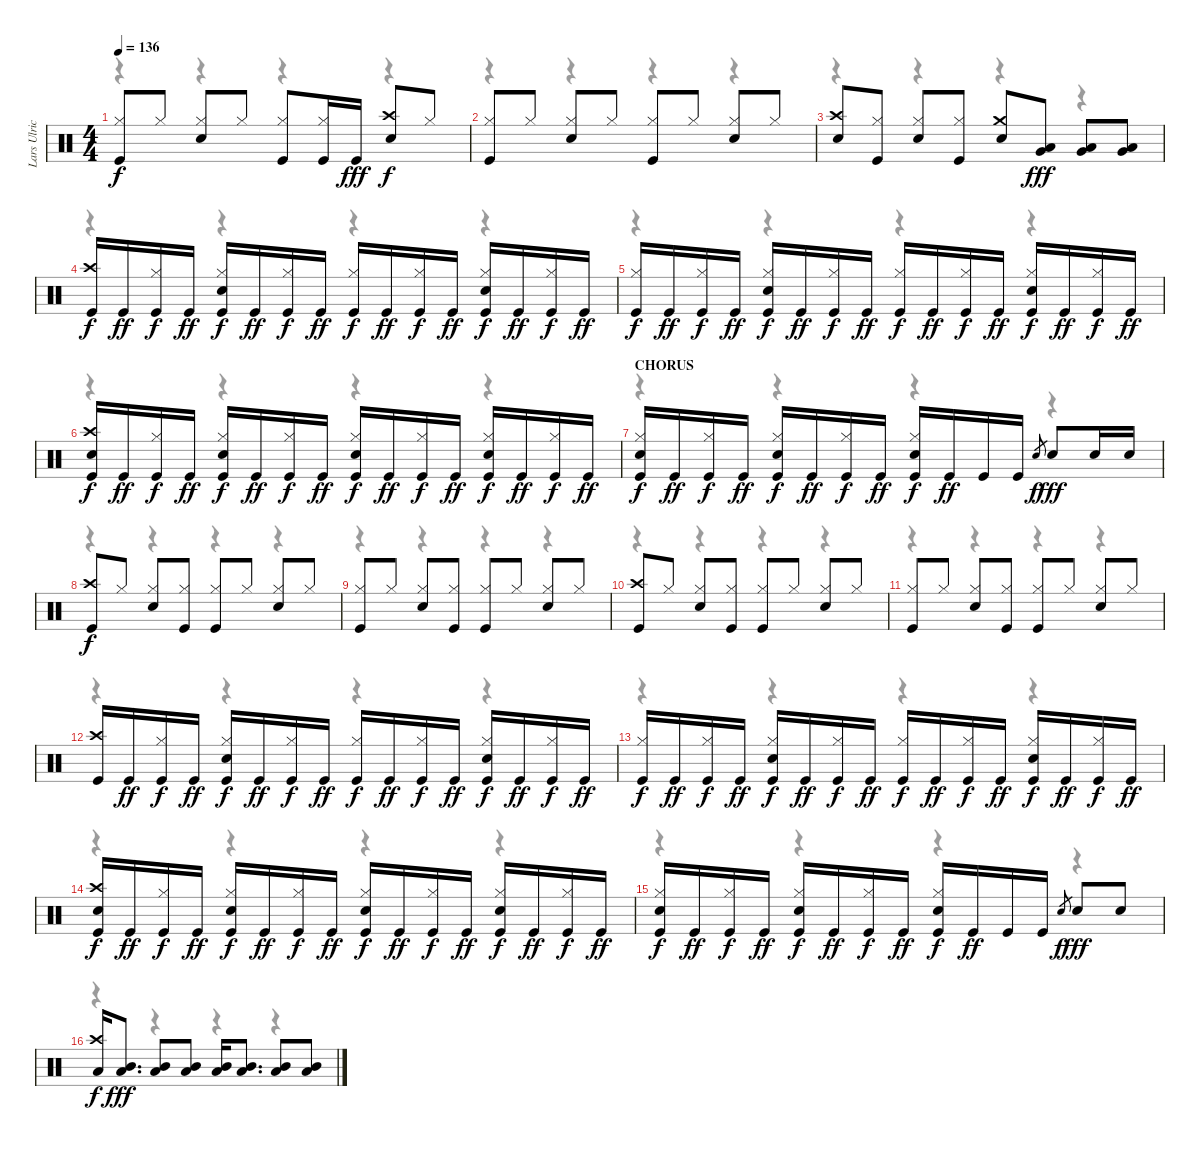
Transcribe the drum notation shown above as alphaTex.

\track ("Lars Ulrich" "Lars Ulric") {instrument percussion}
\staff {score}
\articulation defaults
\voice
\ts (4 4)
\tempo 136
\clef neutral
\ks c
("Hi-Hat (closed)" "Kick (hit)").8{dy f} "Hi-Hat (closed)".8 ("Hi-Hat (closed)" "Snare (hit) 2").8 "Hi-Hat (closed)".8 ("Hi-Hat (closed)" "Kick (hit)").8 ("Hi-Hat (closed)" "Kick (hit)").16 "Kick (hit)".16{dy fff} ("Crash high (hit)" "Snare (hit) 2").8{dy f} "Hi-Hat (closed)".8 |
("Hi-Hat (closed)" "Kick (hit)").8 "Hi-Hat (closed)".8 ("Hi-Hat (closed)" "Snare (hit) 2").8 "Hi-Hat (closed)".8 ("Hi-Hat (closed)" "Kick (hit)").8 "Hi-Hat (closed)".8 ("Hi-Hat (closed)" "Snare (hit) 2").8 "Hi-Hat (closed)".8 |
("Crash high (hit)" "Snare (hit) 2").8 ("Hi-Hat (closed)" "Kick (hit)").8 ("Hi-Hat (closed)" "Snare (hit) 2").8 ("Hi-Hat (closed)" "Kick (hit)").8 ("Crash medium (hit)" "Snare (hit) 2").8 ("Low Tom (hit)" "Very Low Tom (hit)").8{dy fff} ("Low Tom (hit)" "Very Low Tom (hit)").8 ("Low Tom (hit)" "Very Low Tom (hit)").8 |
("Crash high (hit)" "Kick (hit)").16{dy f} "Kick (hit)".16{dy ff} ("Hi-Hat (closed)" "Kick (hit)").16{dy f} "Kick (hit)".16{dy ff} ("Hi-Hat (closed)" "Snare (hit) 2" "Kick (hit)").16{dy f} "Kick (hit)".16{dy ff} ("Hi-Hat (closed)" "Kick (hit)").16{dy f} "Kick (hit)".16{dy ff} ("Hi-Hat (closed)" "Kick (hit)").16{dy f} "Kick (hit)".16{dy ff} ("Hi-Hat (closed)" "Kick (hit)").16{dy f} "Kick (hit)".16{dy ff} ("Hi-Hat (closed)" "Snare (hit) 2" "Kick (hit)").16{dy f} "Kick (hit)".16{dy ff} ("Hi-Hat (closed)" "Kick (hit)").16{dy f} "Kick (hit)".16{dy ff} |
("Hi-Hat (closed)" "Kick (hit)").16{dy f} "Kick (hit)".16{dy ff} ("Hi-Hat (closed)" "Kick (hit)").16{dy f} "Kick (hit)".16{dy ff} ("Hi-Hat (closed)" "Snare (hit) 2" "Kick (hit)").16{dy f} "Kick (hit)".16{dy ff} ("Hi-Hat (closed)" "Kick (hit)").16{dy f} "Kick (hit)".16{dy ff} ("Hi-Hat (closed)" "Kick (hit)").16{dy f} "Kick (hit)".16{dy ff} ("Hi-Hat (closed)" "Kick (hit)").16{dy f} "Kick (hit)".16{dy ff} ("Hi-Hat (closed)" "Snare (hit) 2" "Kick (hit)").16{dy f} "Kick (hit)".16{dy ff} ("Hi-Hat (closed)" "Kick (hit)").16{dy f} "Kick (hit)".16{dy ff} |
("Crash high (hit)" "Snare (hit) 2" "Kick (hit)").16{dy f} "Kick (hit)".16{dy ff} ("Hi-Hat (closed)" "Kick (hit)").16{dy f} "Kick (hit)".16{dy ff} ("Hi-Hat (closed)" "Snare (hit) 2" "Kick (hit)").16{dy f} "Kick (hit)".16{dy ff} ("Hi-Hat (closed)" "Kick (hit)").16{dy f} "Kick (hit)".16{dy ff} ("Hi-Hat (closed)" "Snare (hit) 2" "Kick (hit)").16{dy f} "Kick (hit)".16{dy ff} ("Hi-Hat (closed)" "Kick (hit)").16{dy f} "Kick (hit)".16{dy ff} ("Hi-Hat (closed)" "Snare (hit) 2" "Kick (hit)").16{dy f} "Kick (hit)".16{dy ff} ("Hi-Hat (closed)" "Kick (hit)").16{dy f} "Kick (hit)".16{dy ff} |
\section ("" "CHORUS")
("Hi-Hat (closed)" "Snare (hit) 2" "Kick (hit)").16{dy f} "Kick (hit)".16{dy ff} ("Hi-Hat (closed)" "Kick (hit)").16{dy f} "Kick (hit)".16{dy ff} ("Hi-Hat (closed)" "Snare (hit) 2" "Kick (hit)").16{dy f} "Kick (hit)".16{dy ff} ("Hi-Hat (closed)" "Kick (hit)").16{dy f} "Kick (hit)".16{dy ff} ("Hi-Hat (closed)" "Snare (hit) 2" "Kick (hit)").16{dy f} "Kick (hit)".16{dy ff} "Kick (hit)".16 "Kick (hit)".16 "Snare (hit)".8{gr dy f} "Snare (hit) 2".8{dy fff} "Snare (hit) 2".16 "Snare (hit) 2".16 |
("Crash high (hit)" "Kick (hit)").8{dy f} "Hi-Hat (closed)".8 ("Hi-Hat (closed)" "Snare (hit) 2").8 ("Hi-Hat (closed)" "Kick (hit)").8 ("Hi-Hat (closed)" "Kick (hit)").8 "Hi-Hat (closed)".8 ("Hi-Hat (closed)" "Snare (hit) 2").8 "Hi-Hat (closed)".8 |
("Hi-Hat (closed)" "Kick (hit)").8 "Hi-Hat (closed)".8 ("Hi-Hat (closed)" "Snare (hit) 2").8 ("Hi-Hat (closed)" "Kick (hit)").8 ("Hi-Hat (closed)" "Kick (hit)").8 "Hi-Hat (closed)".8 ("Hi-Hat (closed)" "Snare (hit) 2").8 "Hi-Hat (closed)".8 |
("Crash high (hit)" "Kick (hit)").8 "Hi-Hat (closed)".8 ("Hi-Hat (closed)" "Snare (hit) 2").8 ("Hi-Hat (closed)" "Kick (hit)").8 ("Hi-Hat (closed)" "Kick (hit)").8 "Hi-Hat (closed)".8 ("Hi-Hat (closed)" "Snare (hit) 2").8 "Hi-Hat (closed)".8 |
("Hi-Hat (closed)" "Kick (hit)").8 "Hi-Hat (closed)".8 ("Hi-Hat (closed)" "Snare (hit) 2").8 ("Hi-Hat (closed)" "Kick (hit)").8 ("Hi-Hat (closed)" "Kick (hit)").8 "Hi-Hat (closed)".8 ("Hi-Hat (closed)" "Snare (hit) 2").8 "Hi-Hat (closed)".8 |
("Crash high (hit)" "Kick (hit)").16 "Kick (hit)".16{dy ff} ("Hi-Hat (closed)" "Kick (hit)").16{dy f} "Kick (hit)".16{dy ff} ("Hi-Hat (closed)" "Snare (hit) 2" "Kick (hit)").16{dy f} "Kick (hit)".16{dy ff} ("Hi-Hat (closed)" "Kick (hit)").16{dy f} "Kick (hit)".16{dy ff} ("Hi-Hat (closed)" "Kick (hit)").16{dy f} "Kick (hit)".16{dy ff} ("Hi-Hat (closed)" "Kick (hit)").16{dy f} "Kick (hit)".16{dy ff} ("Hi-Hat (closed)" "Snare (hit) 2" "Kick (hit)").16{dy f} "Kick (hit)".16{dy ff} ("Hi-Hat (closed)" "Kick (hit)").16{dy f} "Kick (hit)".16{dy ff} |
("Hi-Hat (closed)" "Kick (hit)").16{dy f} "Kick (hit)".16{dy ff} ("Hi-Hat (closed)" "Kick (hit)").16{dy f} "Kick (hit)".16{dy ff} ("Hi-Hat (closed)" "Snare (hit) 2" "Kick (hit)").16{dy f} "Kick (hit)".16{dy ff} ("Hi-Hat (closed)" "Kick (hit)").16{dy f} "Kick (hit)".16{dy ff} ("Hi-Hat (closed)" "Kick (hit)").16{dy f} "Kick (hit)".16{dy ff} ("Hi-Hat (closed)" "Kick (hit)").16{dy f} "Kick (hit)".16{dy ff} ("Hi-Hat (closed)" "Snare (hit) 2" "Kick (hit)").16{dy f} "Kick (hit)".16{dy ff} ("Hi-Hat (closed)" "Kick (hit)").16{dy f} "Kick (hit)".16{dy ff} |
("Crash high (hit)" "Snare (hit) 2" "Kick (hit)").16{dy f} "Kick (hit)".16{dy ff} ("Hi-Hat (closed)" "Kick (hit)").16{dy f} "Kick (hit)".16{dy ff} ("Hi-Hat (closed)" "Snare (hit) 2" "Kick (hit)").16{dy f} "Kick (hit)".16{dy ff} ("Hi-Hat (closed)" "Kick (hit)").16{dy f} "Kick (hit)".16{dy ff} ("Hi-Hat (closed)" "Snare (hit) 2" "Kick (hit)").16{dy f} "Kick (hit)".16{dy ff} ("Hi-Hat (closed)" "Kick (hit)").16{dy f} "Kick (hit)".16{dy ff} ("Hi-Hat (closed)" "Snare (hit) 2" "Kick (hit)").16{dy f} "Kick (hit)".16{dy ff} ("Hi-Hat (closed)" "Kick (hit)").16{dy f} "Kick (hit)".16{dy ff} |
("Hi-Hat (closed)" "Snare (hit) 2" "Kick (hit)").16{dy f} "Kick (hit)".16{dy ff} ("Hi-Hat (closed)" "Kick (hit)").16{dy f} "Kick (hit)".16{dy ff} ("Hi-Hat (closed)" "Snare (hit) 2" "Kick (hit)").16{dy f} "Kick (hit)".16{dy ff} ("Hi-Hat (closed)" "Kick (hit)").16{dy f} "Kick (hit)".16{dy ff} ("Hi-Hat (closed)" "Snare (hit) 2" "Kick (hit)").16{dy f} "Kick (hit)".16{dy ff} "Kick (hit)".16 "Kick (hit)".16 "Snare (hit)".8{gr dy f} "Snare (hit) 2".8{dy fff} "Snare (hit) 2".8 |
("Crash high (hit)" "Low Tom (hit)").16{dy f} ("Mid Tom (hit)" "Low Tom (hit)").8{d dy fff} ("Mid Tom (hit)" "Low Tom (hit)").8 ("Mid Tom (hit)" "Low Tom (hit)").8 ("Mid Tom (hit)" "Low Tom (hit)").16 ("Mid Tom (hit)" "Low Tom (hit)").8{d} ("Mid Tom (hit)" "Low Tom (hit)").8 ("Mid Tom (hit)" "Low Tom (hit)").8
\voice
\clef neutral
\ottava regular
\simile none
\ks c
r.4{dy f} r.4 r.4 r.4 |
r.4 r.4 r.4 r.4 |
r.4 r.4 r.4 r.4 |
r.4 r.4 r.4 r.4 |
r.4 r.4 r.4 r.4 |
r.4 r.4 r.4 r.4 |
r.4 r.4 r.4 r.4 |
r.4 r.4 r.4 r.4 |
r.4 r.4 r.4 r.4 |
r.4 r.4 r.4 r.4 |
r.4 r.4 r.4 r.4 |
r.4 r.4 r.4 r.4 |
r.4 r.4 r.4 r.4 |
r.4 r.4 r.4 r.4 |
r.4 r.4 r.4 r.4 |
r.4 r.4 r.4 r.4
